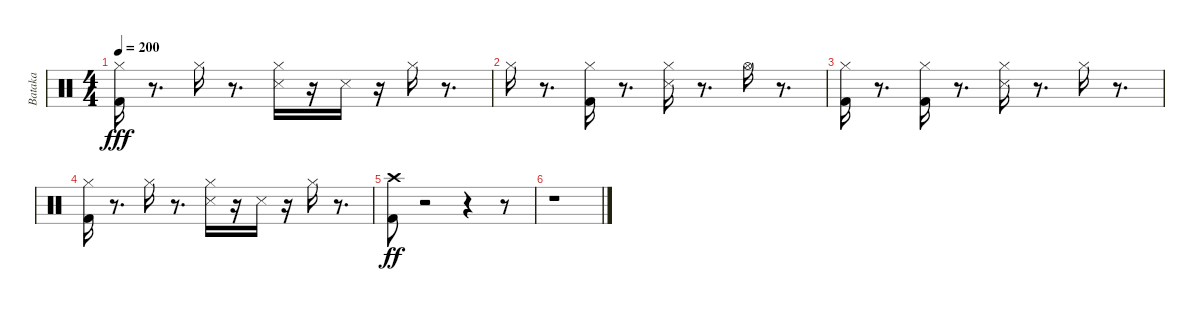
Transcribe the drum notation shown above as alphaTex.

\track ("Bataka" "Bataka") {instrument percussion}
\staff {score}
\articulation defaults
\ts (4 4)
\tempo 200
\clef neutral
\ks c
("Hi-Hat (closed)" "Kick (hit) 2").16{dy fff} r.8{d} "Hi-Hat (closed)".16 r.8{d} ("Hi-Hat (closed)" "Snare (side stick) 3").16 r.16 "Snare (side stick) 3".16 r.16 "Hi-Hat (closed)".16 r.8{d} |
"Hi-Hat (closed)".16 r.8{d} ("Hi-Hat (closed)" "Kick (hit) 2").16 r.8{d} ("Snare (side stick) 3" "Hi-Hat (closed)").16 r.8{d} "Hi-Hat (open)".16 r.8{d} |
("Kick (hit) 2" "Hi-Hat (closed)").16 r.8{d} ("Kick (hit) 2" "Hi-Hat (closed)").16 r.8{d} ("Hi-Hat (closed)" "Snare (side stick) 3").16 r.8{d} "Hi-Hat (closed)".16 r.8{d} |
("Hi-Hat (closed)" "Kick (hit) 2").16 r.8{d} "Hi-Hat (closed)".16 r.8{d} ("Hi-Hat (closed)" "Snare (side stick) 3").16 r.16 "Snare (side stick) 3".16 r.16 "Hi-Hat (closed)".16 r.8{d} |
("Crash high (hit)" "Kick (hit) 2").8{dy ff} r.2 r.4 r.8 |
r.1
